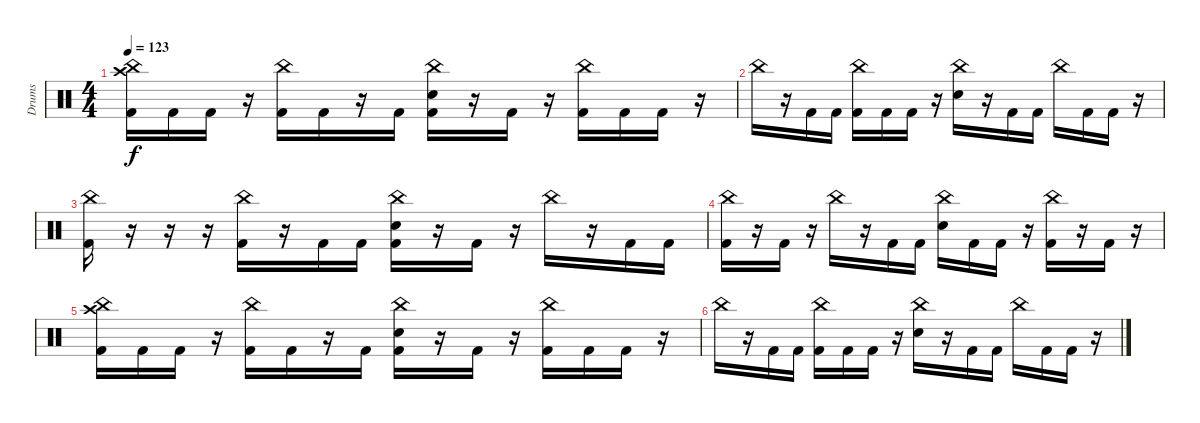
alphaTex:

\track ("Drums" "Drums") {instrument percussion}
\staff {score}
\articulation defaults
\ts (4 4)
\tempo 123
\clef neutral
\ks c
("China (hit)" "Crash high (hit)" "Kick (hit) 2").16{dy f volume 0} "Kick (hit) 2".16 "Kick (hit) 2".16 r.16 ("China (hit)" "Kick (hit) 2").16 "Kick (hit) 2".16 r.16 "Kick (hit) 2".16 ("China (hit)" "Electric Snare (hit)" "Kick (hit) 2").16 r.16 "Kick (hit) 2".16 r.16 ("China (hit)" "Kick (hit) 2").16 "Kick (hit) 2".16 "Kick (hit) 2".16 r.16 |
"China (hit)".16 r.16 "Kick (hit) 2".16 "Kick (hit) 2".16 ("China (hit)" "Kick (hit) 2").16 "Kick (hit) 2".16 "Kick (hit) 2".16 r.16 ("China (hit)" "Electric Snare (hit)").16 r.16 "Kick (hit) 2".16 "Kick (hit) 2".16 "China (hit)".16 "Kick (hit) 2".16 "Kick (hit) 2".16 r.16 |
("China (hit)" "Kick (hit) 2").16 r.16 r.16 r.16 ("China (hit)" "Kick (hit) 2").16 r.16 "Kick (hit) 2".16 "Kick (hit) 2".16 ("China (hit)" "Electric Snare (hit)" "Kick (hit) 2").16 r.16 "Kick (hit) 2".16 r.16 "China (hit)".16 r.16 "Kick (hit) 2".16 "Kick (hit) 2".16 |
("China (hit)" "Kick (hit) 2").16 r.16 "Kick (hit) 2".16 r.16 "China (hit)".16 r.16 "Kick (hit) 2".16 "Kick (hit) 2".16 ("China (hit)" "Electric Snare (hit)").16 "Kick (hit) 2".16 "Kick (hit) 2".16 r.16 ("China (hit)" "Kick (hit) 2").16 r.16 "Kick (hit) 2".16 r.16 |
("China (hit)" "Crash high (hit)" "Kick (hit) 2").16 "Kick (hit) 2".16 "Kick (hit) 2".16 r.16 ("China (hit)" "Kick (hit) 2").16 "Kick (hit) 2".16 r.16 "Kick (hit) 2".16 ("China (hit)" "Electric Snare (hit)" "Kick (hit) 2").16 r.16 "Kick (hit) 2".16 r.16 ("China (hit)" "Kick (hit) 2").16 "Kick (hit) 2".16 "Kick (hit) 2".16 r.16 |
"China (hit)".16 r.16 "Kick (hit) 2".16 "Kick (hit) 2".16 ("China (hit)" "Kick (hit) 2").16 "Kick (hit) 2".16 "Kick (hit) 2".16 r.16 ("China (hit)" "Electric Snare (hit)").16 r.16 "Kick (hit) 2".16 "Kick (hit) 2".16 "China (hit)".16 "Kick (hit) 2".16 "Kick (hit) 2".16 r.16
